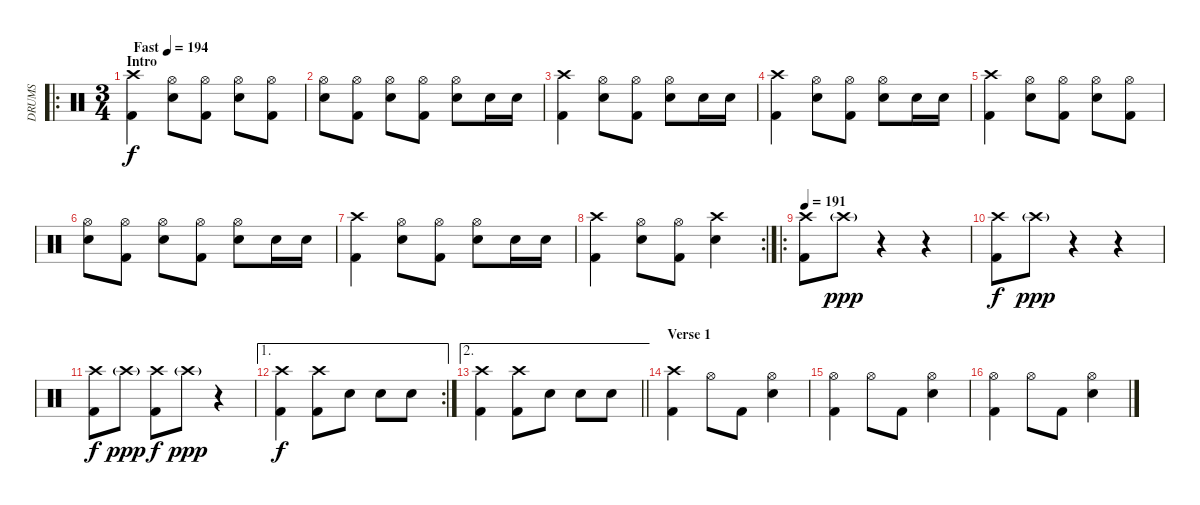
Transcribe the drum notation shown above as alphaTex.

\track ("DRUMS" "DRUMS") {instrument percussion}
\staff {score}
\articulation defaults
\ro
\ts (3 4)
\section ("" "Intro")
\tempo (194 "Fast")
\clef neutral
\ks c
("Crash high (hit)" "Kick (hit) 2").4{dy f} ("Hi-Hat (open)" "Snare (hit) 2").8 ("Hi-Hat (open)" "Kick (hit) 2").8 ("Hi-Hat (open)" "Snare (hit) 2").8 ("Hi-Hat (open)" "Kick (hit) 2").8 |
("Hi-Hat (open)" "Snare (hit) 2").8 ("Hi-Hat (open)" "Kick (hit) 2").8 ("Hi-Hat (open)" "Snare (hit) 2").8 ("Hi-Hat (open)" "Kick (hit) 2").8 ("Hi-Hat (open)" "Snare (hit) 2").8 "Snare (hit) 2".16 "Snare (hit) 2".16 |
("Crash high (hit)" "Kick (hit) 2").4 ("Hi-Hat (open)" "Snare (hit) 2").8 ("Hi-Hat (open)" "Kick (hit) 2").8 ("Hi-Hat (open)" "Snare (hit) 2").8 "Snare (hit) 2".16 "Snare (hit) 2".16 |
("Crash high (hit)" "Kick (hit) 2").4 ("Hi-Hat (open)" "Snare (hit) 2").8 ("Hi-Hat (open)" "Kick (hit) 2").8 ("Hi-Hat (open)" "Snare (hit) 2").8 "Snare (hit) 2".16 "Snare (hit) 2".16 |
("Crash high (hit)" "Kick (hit) 2").4 ("Hi-Hat (open)" "Snare (hit) 2").8 ("Hi-Hat (open)" "Kick (hit) 2").8 ("Hi-Hat (open)" "Snare (hit) 2").8 ("Hi-Hat (open)" "Kick (hit) 2").8 |
("Hi-Hat (open)" "Snare (hit) 2").8 ("Hi-Hat (open)" "Kick (hit) 2").8 ("Hi-Hat (open)" "Snare (hit) 2").8 ("Hi-Hat (open)" "Kick (hit) 2").8 ("Hi-Hat (open)" "Snare (hit) 2").8 "Snare (hit) 2".16 "Snare (hit) 2".16 |
("Crash high (hit)" "Kick (hit) 2").4 ("Hi-Hat (open)" "Snare (hit) 2").8 ("Hi-Hat (open)" "Kick (hit) 2").8 ("Hi-Hat (open)" "Snare (hit) 2").8 "Snare (hit) 2".16 "Snare (hit) 2".16 |
\rc 2
("Crash high (hit)" "Kick (hit) 2").4 ("Hi-Hat (open)" "Snare (hit) 2").8 ("Hi-Hat (open)" "Kick (hit) 2").8 ("Crash high (hit)" "Snare (hit) 2").4 |
\ro
\tempo 191
("Crash high (hit)" "Kick (hit) 2").8 "Crash high (hit)"{g}.8{dy ppp} r.4 r.4 |
("Crash high (hit)" "Kick (hit) 2").8{dy f} "Crash high (hit)"{g}.8{dy ppp} r.4 r.4 |
("Crash high (hit)" "Kick (hit) 2").8{dy f} "Crash high (hit)"{g}.8{dy ppp} ("Crash high (hit)" "Kick (hit) 2").8{dy f} "Crash high (hit)"{g}.8{dy ppp} r.4 |
\ae 1
\rc 2
("Crash high (hit)" "Kick (hit) 2").4{dy f} ("Crash high (hit)" "Kick (hit) 2").8 "Snare (hit) 2".8 "Snare (hit) 2".8 "Snare (hit) 2".8 |
\ae 2
\barLineRight lightlight
("Crash high (hit)" "Kick (hit) 2").4 ("Crash high (hit)" "Kick (hit) 2").8 "Snare (hit) 2".8 "Snare (hit) 2".8 "Snare (hit) 2".8 |
\section ("" "Verse 1")
("Crash high (hit)" "Kick (hit) 2").4 "Hi-Hat (open)".8 "Kick (hit) 2".8 ("Hi-Hat (open)" "Snare (hit) 2").4 |
("Hi-Hat (open)" "Kick (hit) 2").4 "Hi-Hat (open)".8 "Kick (hit) 2".8 ("Hi-Hat (open)" "Snare (hit) 2").4 |
("Hi-Hat (open)" "Kick (hit) 2").4 "Hi-Hat (open)".8 "Kick (hit) 2".8 ("Hi-Hat (open)" "Snare (hit) 2").4
